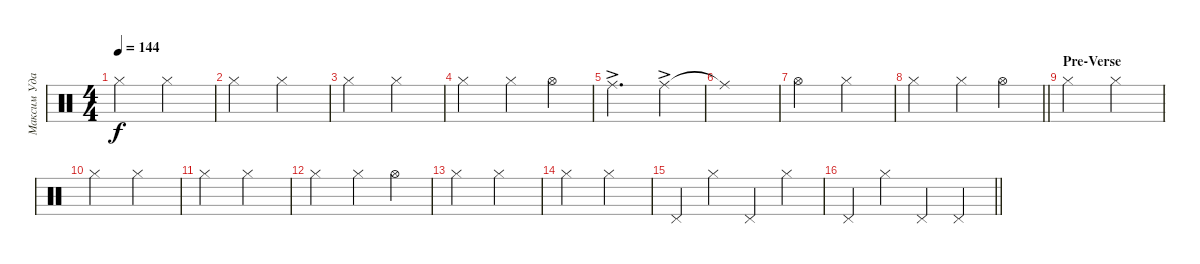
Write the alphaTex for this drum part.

\track ("Максим Удалов" "Максим Уда") {instrument percussion}
\staff {score}
\articulation defaults
\ts (4 4)
\tempo 144
\clef neutral
\ks c "Hi-Hat (closed)".2{dy f} "Hi-Hat (closed)".2
|
"Hi-Hat (closed)".2 "Hi-Hat (closed)".2 |
"Hi-Hat (closed)".2 "Hi-Hat (closed)".2 |
"Hi-Hat (closed)".2 "Hi-Hat (closed)".4 "Hi-Hat (open)".4 |
"Ride (middle)"{ac}.2{d} "Ride (middle)"{ac}.4 |
"Ride (middle)"{t}.1 |
"Hi-Hat (open)".2 "Hi-Hat (closed)".2 |
\barLineRight lightlight "Hi-Hat (closed)".2 "Hi-Hat (closed)".4 "Hi-Hat (open)".4
|
\section ("" "Pre-Verse")
"Hi-Hat (closed)".2 "Hi-Hat (closed)".2 |
"Hi-Hat (closed)".2 "Hi-Hat (closed)".2 |
"Hi-Hat (closed)".2 "Hi-Hat (closed)".2 |
"Hi-Hat (closed)".2 "Hi-Hat (closed)".4 "Hi-Hat (open)".4 |
"Hi-Hat (closed)".2 "Hi-Hat (closed)".2 |
"Hi-Hat (closed)".2 "Hi-Hat (closed)".2 |
"Pedal Hi-Hat (hit)".4 "Hi-Hat (closed)".4 "Pedal Hi-Hat (hit)".4 "Hi-Hat (closed)".4 |
\barLineRight lightlight "Pedal Hi-Hat (hit)".4 "Hi-Hat (closed)".4 "Pedal Hi-Hat (hit)".4 "Pedal Hi-Hat (hit)".4
